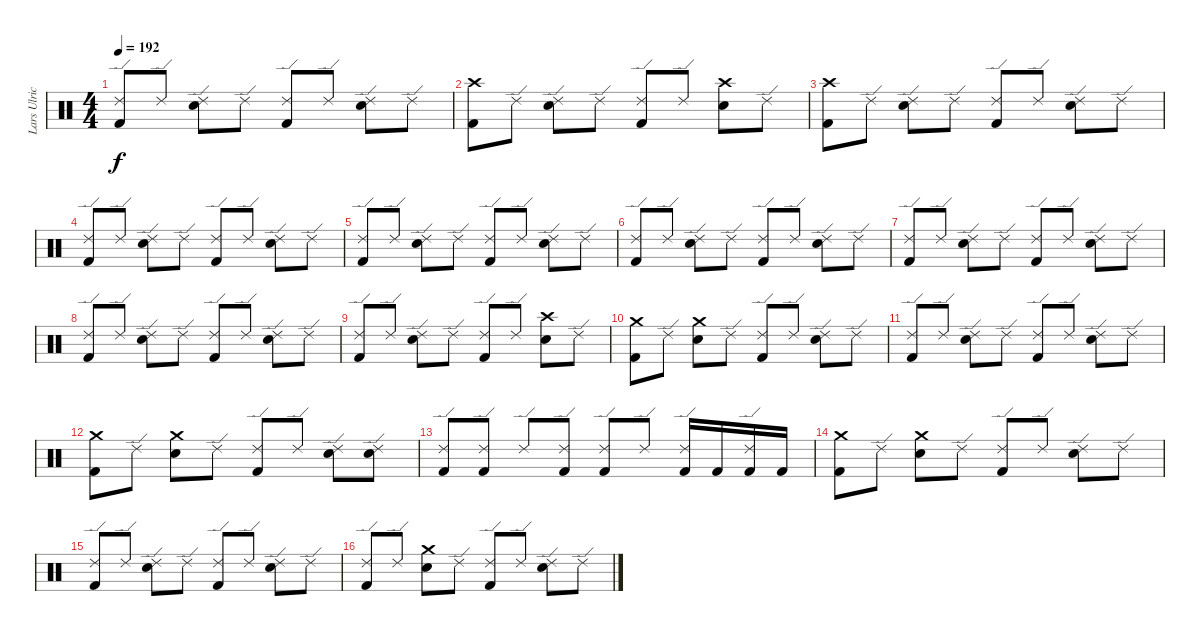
\track ("Lars Ulrich" "Lars Ulric") {instrument percussion}
\staff {score}
\articulation defaults
\ts (4 4)
\tempo 192
\clef neutral
\ks c
("Ride (edge) 2" "Kick (hit) 2").8{dy f} "Ride (edge) 2".8 ("Ride (edge) 2" "Snare (hit) 2").8 "Ride (edge) 2".8 ("Ride (edge) 2" "Kick (hit) 2").8 "Ride (edge) 2".8 ("Ride (edge) 2" "Snare (hit) 2").8 "Ride (edge) 2".8 |
("Crash high (hit)" "Kick (hit) 2").8 "Ride (edge) 2".8 ("Ride (edge) 2" "Snare (hit) 2").8 "Ride (edge) 2".8 ("Ride (edge) 2" "Kick (hit) 2").8 "Ride (edge) 2".8 ("Crash high (hit)" "Snare (hit) 2").8 "Ride (edge) 2".8 |
("Crash high (hit)" "Kick (hit) 2").8 "Ride (edge) 2".8 ("Ride (edge) 2" "Snare (hit) 2").8 "Ride (edge) 2".8 ("Ride (edge) 2" "Kick (hit) 2").8 "Ride (edge) 2".8 ("Ride (edge) 2" "Snare (hit) 2").8 "Ride (edge) 2".8 |
("Ride (edge) 2" "Kick (hit) 2").8 "Ride (edge) 2".8 ("Ride (edge) 2" "Snare (hit) 2").8 "Ride (edge) 2".8 ("Ride (edge) 2" "Kick (hit) 2").8 "Ride (edge) 2".8 ("Ride (edge) 2" "Snare (hit) 2").8 "Ride (edge) 2".8 |
("Ride (edge) 2" "Kick (hit) 2").8 "Ride (edge) 2".8 ("Ride (edge) 2" "Snare (hit) 2").8 "Ride (edge) 2".8 ("Ride (edge) 2" "Kick (hit) 2").8 "Ride (edge) 2".8 ("Ride (edge) 2" "Snare (hit) 2").8 "Ride (edge) 2".8 |
("Ride (edge) 2" "Kick (hit) 2").8 "Ride (edge) 2".8 ("Ride (edge) 2" "Snare (hit) 2").8 "Ride (edge) 2".8 ("Ride (edge) 2" "Kick (hit) 2").8 "Ride (edge) 2".8 ("Ride (edge) 2" "Snare (hit) 2").8 "Ride (edge) 2".8 |
("Ride (edge) 2" "Kick (hit) 2").8 "Ride (edge) 2".8 ("Ride (edge) 2" "Snare (hit) 2").8 "Ride (edge) 2".8 ("Ride (edge) 2" "Kick (hit) 2").8 "Ride (edge) 2".8 ("Ride (edge) 2" "Snare (hit) 2").8 "Ride (edge) 2".8 |
("Ride (edge) 2" "Kick (hit) 2").8 "Ride (edge) 2".8 ("Ride (edge) 2" "Snare (hit) 2").8 "Ride (edge) 2".8 ("Ride (edge) 2" "Kick (hit) 2").8 "Ride (edge) 2".8 ("Ride (edge) 2" "Snare (hit) 2").8 "Ride (edge) 2".8 |
("Ride (edge) 2" "Kick (hit) 2").8 "Ride (edge) 2".8 ("Ride (edge) 2" "Snare (hit) 2").8 "Ride (edge) 2".8 ("Ride (edge) 2" "Kick (hit) 2").8 "Ride (edge) 2".8 ("Crash high (hit)" "Snare (hit) 2").8 "Ride (edge) 2".8 |
("Crash medium (hit)" "Kick (hit) 2").8 "Ride (edge) 2".8 ("Crash medium (hit)" "Snare (hit) 2").8 "Ride (edge) 2".8 ("Ride (edge) 2" "Kick (hit) 2").8 "Ride (edge) 2".8 ("Ride (edge) 2" "Snare (hit) 2").8 "Ride (edge) 2".8 |
("Ride (edge) 2" "Kick (hit) 2").8 "Ride (edge) 2".8 ("Ride (edge) 2" "Snare (hit) 2").8 "Ride (edge) 2".8 ("Ride (edge) 2" "Kick (hit) 2").8 "Ride (edge) 2".8 ("Ride (edge) 2" "Snare (hit) 2").8 "Ride (edge) 2".8 |
("Crash medium (hit)" "Kick (hit) 2").8 "Ride (edge) 2".8 ("Crash medium (hit)" "Snare (hit) 2").8 "Ride (edge) 2".8 ("Ride (edge) 2" "Kick (hit) 2").8 "Ride (edge) 2".8 ("Ride (edge) 2" "Snare (hit) 2").8 ("Ride (edge) 2" "Snare (hit) 2").8 |
("Ride (edge) 2" "Kick (hit) 2").8 ("Ride (edge) 2" "Kick (hit) 2").8 "Ride (edge) 2".8 ("Ride (edge) 2" "Kick (hit) 2").8 ("Ride (edge) 2" "Kick (hit) 2").8 "Ride (edge) 2".8 ("Ride (edge) 2" "Kick (hit) 2").16 "Kick (hit) 2".16 ("Ride (edge) 2" "Kick (hit) 2").16 "Kick (hit) 2".16 |
("Crash medium (hit)" "Kick (hit) 2").8 "Ride (edge) 2".8 ("Crash medium (hit)" "Snare (hit) 2").8 "Ride (edge) 2".8 ("Ride (edge) 2" "Kick (hit) 2").8 "Ride (edge) 2".8 ("Ride (edge) 2" "Snare (hit) 2").8 "Ride (edge) 2".8 |
("Ride (edge) 2" "Kick (hit) 2").8 "Ride (edge) 2".8 ("Ride (edge) 2" "Snare (hit) 2").8 "Ride (edge) 2".8 ("Ride (edge) 2" "Kick (hit) 2").8 "Ride (edge) 2".8 ("Ride (edge) 2" "Snare (hit) 2").8 "Ride (edge) 2".8 |
("Ride (edge) 2" "Kick (hit) 2").8 "Ride (edge) 2".8 ("Crash medium (hit)" "Snare (hit) 2").8 "Ride (edge) 2".8 ("Ride (edge) 2" "Kick (hit) 2").8 "Ride (edge) 2".8 ("Ride (edge) 2" "Snare (hit) 2").8 "Ride (edge) 2".8
